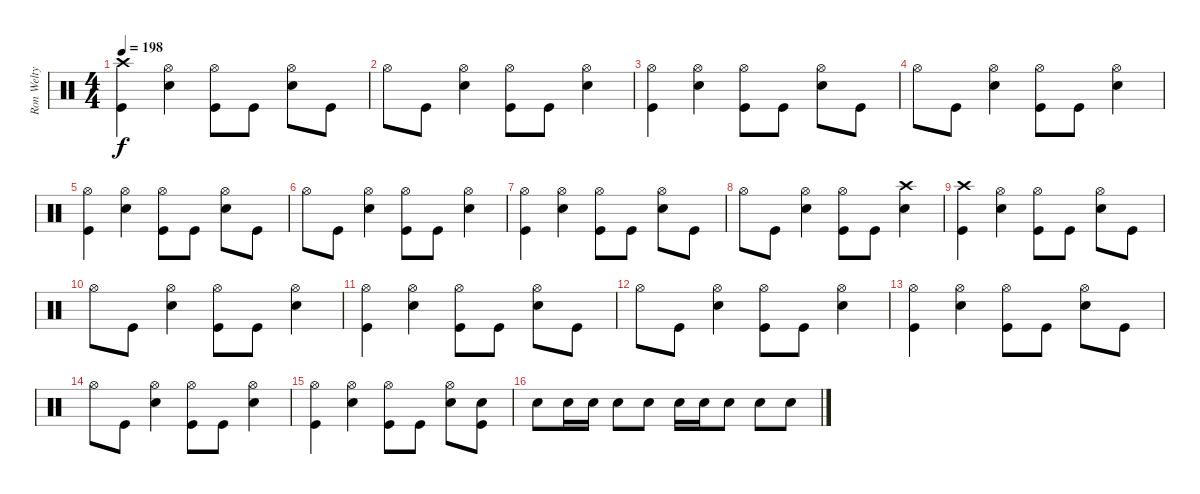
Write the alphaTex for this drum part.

\track ("Ron Welty" "Ron Welty") {instrument percussion}
\staff {score}
\articulation defaults
\ts (4 4)
\tempo 198
\clef neutral
\ks c
("Kick (hit)" "Crash high (hit)").4{dy f} ("Hi-Hat (open)" "Snare (hit) 2").4 ("Hi-Hat (open)" "Kick (hit)").8 "Kick (hit)".8 ("Hi-Hat (open)" "Snare (hit) 2").8 "Kick (hit)".8 |
"Hi-Hat (open)".8 "Kick (hit)".8 ("Hi-Hat (open)" "Snare (hit) 2").4 ("Hi-Hat (open)" "Kick (hit)").8 "Kick (hit)".8 ("Hi-Hat (open)" "Snare (hit) 2").4 |
("Kick (hit)" "Hi-Hat (open)").4 ("Hi-Hat (open)" "Snare (hit) 2").4 ("Hi-Hat (open)" "Kick (hit)").8 "Kick (hit)".8 ("Hi-Hat (open)" "Snare (hit) 2").8 "Kick (hit)".8 |
"Hi-Hat (open)".8 "Kick (hit)".8 ("Hi-Hat (open)" "Snare (hit) 2").4 ("Hi-Hat (open)" "Kick (hit)").8 "Kick (hit)".8 ("Hi-Hat (open)" "Snare (hit) 2").4 |
("Kick (hit)" "Hi-Hat (open)").4 ("Hi-Hat (open)" "Snare (hit) 2").4 ("Hi-Hat (open)" "Kick (hit)").8 "Kick (hit)".8 ("Hi-Hat (open)" "Snare (hit) 2").8 "Kick (hit)".8 |
"Hi-Hat (open)".8 "Kick (hit)".8 ("Hi-Hat (open)" "Snare (hit) 2").4 ("Hi-Hat (open)" "Kick (hit)").8 "Kick (hit)".8 ("Hi-Hat (open)" "Snare (hit) 2").4 |
("Kick (hit)" "Hi-Hat (open)").4 ("Hi-Hat (open)" "Snare (hit) 2").4 ("Hi-Hat (open)" "Kick (hit)").8 "Kick (hit)".8 ("Hi-Hat (open)" "Snare (hit) 2").8 "Kick (hit)".8 |
"Hi-Hat (open)".8 "Kick (hit)".8 ("Hi-Hat (open)" "Snare (hit) 2").4 ("Hi-Hat (open)" "Kick (hit)").8 "Kick (hit)".8 ("Snare (hit) 2" "Crash high (hit)").4 |
("Kick (hit)" "Crash high (hit)").4 ("Hi-Hat (open)" "Snare (hit) 2").4 ("Hi-Hat (open)" "Kick (hit)").8 "Kick (hit)".8 ("Hi-Hat (open)" "Snare (hit) 2").8 "Kick (hit)".8 |
"Hi-Hat (open)".8 "Kick (hit)".8 ("Hi-Hat (open)" "Snare (hit) 2").4 ("Hi-Hat (open)" "Kick (hit)").8 "Kick (hit)".8 ("Hi-Hat (open)" "Snare (hit) 2").4 |
("Kick (hit)" "Hi-Hat (open)").4 ("Hi-Hat (open)" "Snare (hit) 2").4 ("Hi-Hat (open)" "Kick (hit)").8 "Kick (hit)".8 ("Hi-Hat (open)" "Snare (hit) 2").8 "Kick (hit)".8 |
"Hi-Hat (open)".8 "Kick (hit)".8 ("Hi-Hat (open)" "Snare (hit) 2").4 ("Hi-Hat (open)" "Kick (hit)").8 "Kick (hit)".8 ("Hi-Hat (open)" "Snare (hit) 2").4 |
("Kick (hit)" "Hi-Hat (open)").4 ("Hi-Hat (open)" "Snare (hit) 2").4 ("Hi-Hat (open)" "Kick (hit)").8 "Kick (hit)".8 ("Hi-Hat (open)" "Snare (hit) 2").8 "Kick (hit)".8 |
"Hi-Hat (open)".8 "Kick (hit)".8 ("Hi-Hat (open)" "Snare (hit) 2").4 ("Hi-Hat (open)" "Kick (hit)").8 "Kick (hit)".8 ("Hi-Hat (open)" "Snare (hit) 2").4 |
("Kick (hit)" "Hi-Hat (open)").4 ("Hi-Hat (open)" "Snare (hit) 2").4 ("Hi-Hat (open)" "Kick (hit)").8 "Kick (hit)".8 ("Hi-Hat (open)" "Snare (hit) 2").8 ("Snare (hit) 2" "Kick (hit)").8 |
"Snare (hit) 2".8 "Snare (hit) 2".16 "Snare (hit) 2".16 "Snare (hit) 2".8 "Snare (hit) 2".8 "Snare (hit) 2".16 "Snare (hit) 2".16 "Snare (hit) 2".8 "Snare (hit) 2".8 "Snare (hit) 2".8
